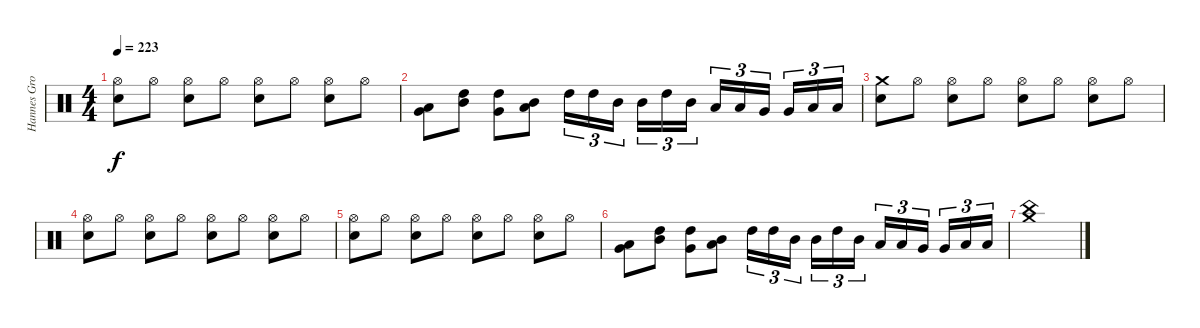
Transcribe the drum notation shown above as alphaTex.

\track ("Hannes Grossmann" "Hannes Gro") {instrument percussion}
\staff {score}
\articulation defaults
\ts (4 4)
\tempo 223
\clef neutral
\ks c
("Hi-Hat (open)" "Electric Snare (hit)").8{dy f} "Hi-Hat (open)".8 ("Hi-Hat (open)" "Electric Snare (hit)").8 "Hi-Hat (open)".8 ("Hi-Hat (open)" "Electric Snare (hit)").8 "Hi-Hat (open)".8 ("Hi-Hat (open)" "Electric Snare (hit)").8 "Hi-Hat (open)".8 |
("Very Low Tom (hit)" "Low Tom (hit)").8 ("Mid Tom (hit)" "High Tom (hit)").8 ("High Tom (hit)" "Very Low Tom (hit)").8 ("Low Floor Tom (hit)" "Mid Tom (hit)").8 "High Tom (hit)".16{tu (3 2)} "High Tom (hit)".16{tu (3 2)} "Mid Tom (hit)".16{tu (3 2) beam splitsecondary} "Mid Tom (hit)".16{tu (3 2)} "High Tom (hit)".16{tu (3 2)} "Mid Tom (hit)".16{tu (3 2)} "Low Tom (hit)".16{tu (3 2)} "Low Tom (hit)".16{tu (3 2)} "Very Low Tom (hit)".16{tu (3 2) beam splitsecondary} "Very Low Tom (hit)".16{tu (3 2)} "Low Floor Tom (hit)".16{tu (3 2)} "Low Floor Tom (hit)".16{tu (3 2)} |
("Crash medium (hit)" "Electric Snare (hit)").8 "Hi-Hat (open)".8 ("Hi-Hat (open)" "Electric Snare (hit)").8 "Hi-Hat (open)".8 ("Hi-Hat (open)" "Electric Snare (hit)").8 "Hi-Hat (open)".8 ("Hi-Hat (open)" "Electric Snare (hit)").8 "Hi-Hat (open)".8 |
("Hi-Hat (open)" "Electric Snare (hit)").8 "Hi-Hat (open)".8 ("Hi-Hat (open)" "Electric Snare (hit)").8 "Hi-Hat (open)".8 ("Hi-Hat (open)" "Electric Snare (hit)").8 "Hi-Hat (open)".8 ("Hi-Hat (open)" "Electric Snare (hit)").8 "Hi-Hat (open)".8 |
("Hi-Hat (open)" "Electric Snare (hit)").8 "Hi-Hat (open)".8 ("Hi-Hat (open)" "Electric Snare (hit)").8 "Hi-Hat (open)".8 ("Hi-Hat (open)" "Electric Snare (hit)").8 "Hi-Hat (open)".8 ("Hi-Hat (open)" "Electric Snare (hit)").8 "Hi-Hat (open)".8 |
("Very Low Tom (hit)" "Low Tom (hit)").8 ("Mid Tom (hit)" "High Tom (hit)").8 ("High Tom (hit)" "Very Low Tom (hit)").8 ("Low Floor Tom (hit)" "Mid Tom (hit)").8 "High Tom (hit)".16{tu (3 2)} "High Tom (hit)".16{tu (3 2)} "Mid Tom (hit)".16{tu (3 2) beam splitsecondary} "Mid Tom (hit)".16{tu (3 2)} "High Tom (hit)".16{tu (3 2)} "Mid Tom (hit)".16{tu (3 2)} "Low Tom (hit)".16{tu (3 2)} "Low Tom (hit)".16{tu (3 2)} "Very Low Tom (hit)".16{tu (3 2) beam splitsecondary} "Very Low Tom (hit)".16{tu (3 2)} "Low Floor Tom (hit)".16{tu (3 2)} "Low Floor Tom (hit)".16{tu (3 2)} |
("Crash medium (hit)" "China (hit)").1
